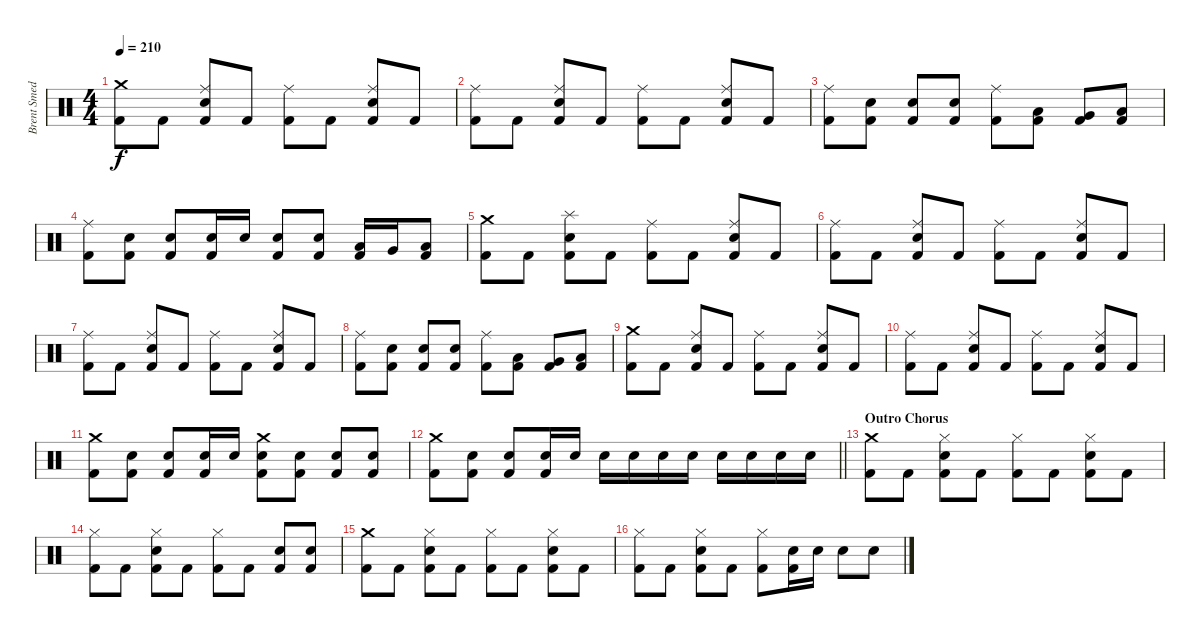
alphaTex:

\track ("Brent Smedley" "Brent Smed") {instrument percussion}
\staff {score}
\articulation defaults
\ts (4 4)
\tempo 210
\clef neutral
\ks c
("Crash medium (hit)" "Kick (hit) 2").8{dy f} "Kick (hit) 2".8 ("Ride (middle)" "Electric Snare (hit)" "Kick (hit) 2").8 "Kick (hit) 2".8 ("Ride (middle)" "Kick (hit) 2").8 "Kick (hit) 2".8 ("Ride (middle)" "Electric Snare (hit)" "Kick (hit) 2").8 "Kick (hit) 2".8 |
("Ride (middle)" "Kick (hit) 2").8 "Kick (hit) 2".8 ("Ride (middle)" "Electric Snare (hit)" "Kick (hit) 2").8 "Kick (hit) 2".8 ("Ride (middle)" "Kick (hit) 2").8 "Kick (hit) 2".8 ("Ride (middle)" "Electric Snare (hit)" "Kick (hit) 2").8 "Kick (hit) 2".8 |
("Ride (middle)" "Kick (hit) 2").8 ("Electric Snare (hit)" "Kick (hit) 2").8 ("Electric Snare (hit)" "Kick (hit) 2").8 ("Electric Snare (hit)" "Kick (hit) 2").8 ("Ride (middle)" "Kick (hit) 2").8 ("Low Tom (hit)" "Kick (hit) 2").8 ("Very Low Tom (hit)" "Kick (hit) 2").8 ("Low Floor Tom (hit)" "Kick (hit) 2").8 |
("Ride (middle)" "Kick (hit) 2").8 ("Electric Snare (hit)" "Kick (hit) 2").8 ("Electric Snare (hit)" "Kick (hit) 2").8 ("Electric Snare (hit)" "Kick (hit) 2").16 "Electric Snare (hit)".16 ("Electric Snare (hit)" "Kick (hit) 2").8 ("Electric Snare (hit)" "Kick (hit) 2").8 ("Low Tom (hit)" "Kick (hit) 2").16 "Very Low Tom (hit)".16 ("Low Floor Tom (hit)" "Kick (hit) 2").8 |
("Crash medium (hit)" "Kick (hit) 2").8 "Kick (hit) 2".8 ("Splash (hit)" "Electric Snare (hit)" "Kick (hit) 2").8 "Kick (hit) 2".8 ("Ride (middle)" "Kick (hit) 2").8 "Kick (hit) 2".8 ("Ride (middle)" "Electric Snare (hit)" "Kick (hit) 2").8 "Kick (hit) 2".8 |
("Ride (middle)" "Kick (hit) 2").8 "Kick (hit) 2".8 ("Ride (middle)" "Electric Snare (hit)" "Kick (hit) 2").8 "Kick (hit) 2".8 ("Ride (middle)" "Kick (hit) 2").8 "Kick (hit) 2".8 ("Ride (middle)" "Electric Snare (hit)" "Kick (hit) 2").8 "Kick (hit) 2".8 |
("Ride (middle)" "Kick (hit) 2").8 "Kick (hit) 2".8 ("Ride (middle)" "Electric Snare (hit)" "Kick (hit) 2").8 "Kick (hit) 2".8 ("Ride (middle)" "Kick (hit) 2").8 "Kick (hit) 2".8 ("Ride (middle)" "Electric Snare (hit)" "Kick (hit) 2").8 "Kick (hit) 2".8 |
("Ride (middle)" "Kick (hit) 2").8 ("Electric Snare (hit)" "Kick (hit) 2").8 ("Electric Snare (hit)" "Kick (hit) 2").8 ("Electric Snare (hit)" "Kick (hit) 2").8 ("Ride (middle)" "Kick (hit) 2").8 ("Low Tom (hit)" "Kick (hit) 2").8 ("Very Low Tom (hit)" "Kick (hit) 2").8 ("Low Floor Tom (hit)" "Kick (hit) 2").8 |
("Crash medium (hit)" "Kick (hit) 2").8 "Kick (hit) 2".8 ("Ride (middle)" "Electric Snare (hit)" "Kick (hit) 2").8 "Kick (hit) 2".8 ("Ride (middle)" "Kick (hit) 2").8 "Kick (hit) 2".8 ("Ride (middle)" "Electric Snare (hit)" "Kick (hit) 2").8 "Kick (hit) 2".8 |
("Ride (middle)" "Kick (hit) 2").8 "Kick (hit) 2".8 ("Ride (middle)" "Electric Snare (hit)" "Kick (hit) 2").8 "Kick (hit) 2".8 ("Ride (middle)" "Kick (hit) 2").8 "Kick (hit) 2".8 ("Ride (middle)" "Electric Snare (hit)" "Kick (hit) 2").8 "Kick (hit) 2".8 |
("Crash medium (hit)" "Kick (hit) 2").8 ("Electric Snare (hit)" "Kick (hit) 2").8 ("Electric Snare (hit)" "Kick (hit) 2").8 ("Electric Snare (hit)" "Kick (hit) 2").16 "Electric Snare (hit)".16 ("Crash medium (hit)" "Electric Snare (hit)" "Kick (hit) 2").8 ("Electric Snare (hit)" "Kick (hit) 2").8 ("Electric Snare (hit)" "Kick (hit) 2").8 ("Electric Snare (hit)" "Kick (hit) 2").8 |
\barLineRight lightlight
("Crash medium (hit)" "Kick (hit) 2").8 ("Electric Snare (hit)" "Kick (hit) 2").8 ("Electric Snare (hit)" "Kick (hit) 2").8 ("Electric Snare (hit)" "Kick (hit) 2").16 "Electric Snare (hit)".16 "Electric Snare (hit)".16 "Electric Snare (hit)".16 "Electric Snare (hit)".16 "Electric Snare (hit)".16 "Electric Snare (hit)".16 "Electric Snare (hit)".16 "Electric Snare (hit)".16 "Electric Snare (hit)".16 |
\section ("" "Outro Chorus")
("Crash medium (hit)" "Kick (hit) 2").8 "Kick (hit) 2".8 ("Hi-Hat (closed)" "Electric Snare (hit)" "Kick (hit) 2").8 "Kick (hit) 2".8 ("Hi-Hat (closed)" "Kick (hit) 2").8 "Kick (hit) 2".8 ("Hi-Hat (closed)" "Electric Snare (hit)" "Kick (hit) 2").8 "Kick (hit) 2".8 |
("Hi-Hat (closed)" "Kick (hit) 2").8 "Kick (hit) 2".8 ("Hi-Hat (closed)" "Electric Snare (hit)" "Kick (hit) 2").8 "Kick (hit) 2".8 ("Hi-Hat (closed)" "Kick (hit) 2").8 "Kick (hit) 2".8 ("Electric Snare (hit)" "Kick (hit) 2").8 ("Electric Snare (hit)" "Kick (hit) 2").8 |
("Crash medium (hit)" "Kick (hit) 2").8 "Kick (hit) 2".8 ("Hi-Hat (closed)" "Electric Snare (hit)" "Kick (hit) 2").8 "Kick (hit) 2".8 ("Hi-Hat (closed)" "Kick (hit) 2").8 "Kick (hit) 2".8 ("Hi-Hat (closed)" "Electric Snare (hit)" "Kick (hit) 2").8 "Kick (hit) 2".8 |
("Hi-Hat (closed)" "Kick (hit) 2").8 "Kick (hit) 2".8 ("Hi-Hat (closed)" "Electric Snare (hit)" "Kick (hit) 2").8 "Kick (hit) 2".8 ("Hi-Hat (closed)" "Kick (hit) 2").8 ("Electric Snare (hit)" "Kick (hit) 2").16 "Electric Snare (hit)".16 "Electric Snare (hit)".8 "Electric Snare (hit)".8
